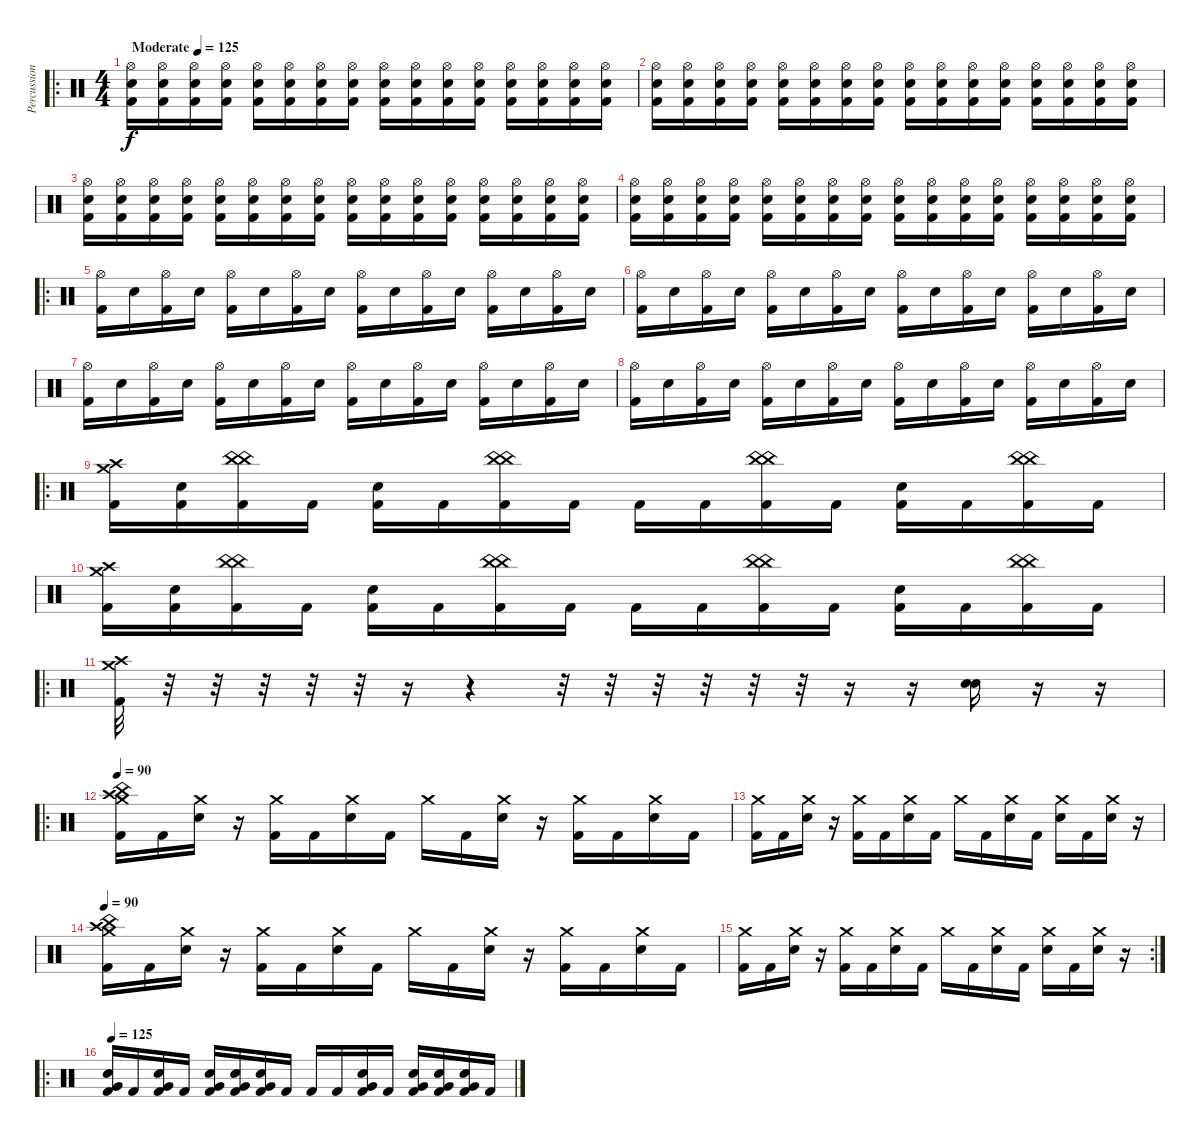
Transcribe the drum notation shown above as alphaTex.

\track ("Percussion" "Percussion") {instrument percussion}
\staff {score}
\articulation defaults
\ro
\ts (4 4)
\tempo (125 "Moderate")
\clef neutral
\ks c
("Hi-Hat (open)" "Snare (hit) 2" "Kick (hit) 2").16{dy f} ("Hi-Hat (open)" "Snare (hit) 2" "Kick (hit) 2").16 ("Hi-Hat (open)" "Snare (hit) 2" "Kick (hit) 2").16 ("Hi-Hat (open)" "Snare (hit) 2" "Kick (hit) 2").16 ("Hi-Hat (open)" "Snare (hit) 2" "Kick (hit) 2").16 ("Hi-Hat (open)" "Snare (hit) 2" "Kick (hit) 2").16 ("Hi-Hat (open)" "Snare (hit) 2" "Kick (hit) 2").16 ("Hi-Hat (open)" "Snare (hit) 2" "Kick (hit) 2").16 ("Hi-Hat (open)" "Snare (hit) 2" "Kick (hit) 2").16 ("Hi-Hat (open)" "Snare (hit) 2" "Kick (hit) 2").16 ("Hi-Hat (open)" "Snare (hit) 2" "Kick (hit) 2").16 ("Hi-Hat (open)" "Snare (hit) 2" "Kick (hit) 2").16 ("Hi-Hat (open)" "Snare (hit) 2" "Kick (hit) 2").16 ("Hi-Hat (open)" "Snare (hit) 2" "Kick (hit) 2").16 ("Hi-Hat (open)" "Snare (hit) 2" "Kick (hit) 2").16 ("Hi-Hat (open)" "Snare (hit) 2" "Kick (hit) 2").16 |
("Hi-Hat (open)" "Snare (hit) 2" "Kick (hit) 2").16 ("Hi-Hat (open)" "Snare (hit) 2" "Kick (hit) 2").16 ("Hi-Hat (open)" "Snare (hit) 2" "Kick (hit) 2").16 ("Hi-Hat (open)" "Snare (hit) 2" "Kick (hit) 2").16 ("Hi-Hat (open)" "Snare (hit) 2" "Kick (hit) 2").16 ("Hi-Hat (open)" "Snare (hit) 2" "Kick (hit) 2").16 ("Hi-Hat (open)" "Snare (hit) 2" "Kick (hit) 2").16 ("Hi-Hat (open)" "Snare (hit) 2" "Kick (hit) 2").16 ("Hi-Hat (open)" "Snare (hit) 2" "Kick (hit) 2").16 ("Hi-Hat (open)" "Snare (hit) 2" "Kick (hit) 2").16 ("Hi-Hat (open)" "Snare (hit) 2" "Kick (hit) 2").16 ("Hi-Hat (open)" "Snare (hit) 2" "Kick (hit) 2").16 ("Hi-Hat (open)" "Snare (hit) 2" "Kick (hit) 2").16 ("Hi-Hat (open)" "Snare (hit) 2" "Kick (hit) 2").16 ("Hi-Hat (open)" "Snare (hit) 2" "Kick (hit) 2").16 ("Hi-Hat (open)" "Snare (hit) 2" "Kick (hit) 2").16 |
("Hi-Hat (open)" "Snare (hit) 2" "Kick (hit) 2").16 ("Hi-Hat (open)" "Snare (hit) 2" "Kick (hit) 2").16 ("Hi-Hat (open)" "Snare (hit) 2" "Kick (hit) 2").16 ("Hi-Hat (open)" "Snare (hit) 2" "Kick (hit) 2").16 ("Hi-Hat (open)" "Snare (hit) 2" "Kick (hit) 2").16 ("Hi-Hat (open)" "Snare (hit) 2" "Kick (hit) 2").16 ("Hi-Hat (open)" "Snare (hit) 2" "Kick (hit) 2").16 ("Hi-Hat (open)" "Snare (hit) 2" "Kick (hit) 2").16 ("Hi-Hat (open)" "Snare (hit) 2" "Kick (hit) 2").16 ("Hi-Hat (open)" "Snare (hit) 2" "Kick (hit) 2").16 ("Hi-Hat (open)" "Snare (hit) 2" "Kick (hit) 2").16 ("Hi-Hat (open)" "Snare (hit) 2" "Kick (hit) 2").16 ("Hi-Hat (open)" "Snare (hit) 2" "Kick (hit) 2").16 ("Hi-Hat (open)" "Snare (hit) 2" "Kick (hit) 2").16 ("Hi-Hat (open)" "Snare (hit) 2" "Kick (hit) 2").16 ("Hi-Hat (open)" "Snare (hit) 2" "Kick (hit) 2").16 |
("Hi-Hat (open)" "Snare (hit) 2" "Kick (hit) 2").16 ("Hi-Hat (open)" "Snare (hit) 2" "Kick (hit) 2").16 ("Hi-Hat (open)" "Snare (hit) 2" "Kick (hit) 2").16 ("Hi-Hat (open)" "Snare (hit) 2" "Kick (hit) 2").16 ("Hi-Hat (open)" "Snare (hit) 2" "Kick (hit) 2").16 ("Hi-Hat (open)" "Snare (hit) 2" "Kick (hit) 2").16 ("Hi-Hat (open)" "Snare (hit) 2" "Kick (hit) 2").16 ("Hi-Hat (open)" "Snare (hit) 2" "Kick (hit) 2").16 ("Hi-Hat (open)" "Snare (hit) 2" "Kick (hit) 2").16 ("Hi-Hat (open)" "Snare (hit) 2" "Kick (hit) 2").16 ("Hi-Hat (open)" "Snare (hit) 2" "Kick (hit) 2").16 ("Hi-Hat (open)" "Snare (hit) 2" "Kick (hit) 2").16 ("Hi-Hat (open)" "Snare (hit) 2" "Kick (hit) 2").16 ("Hi-Hat (open)" "Snare (hit) 2" "Kick (hit) 2").16 ("Hi-Hat (open)" "Snare (hit) 2" "Kick (hit) 2").16 ("Hi-Hat (open)" "Snare (hit) 2" "Kick (hit) 2").16 |
\ro
("Hi-Hat (open)" "Kick (hit) 2").16 "Snare (hit) 2".16 ("Hi-Hat (open)" "Kick (hit) 2").16 "Snare (hit) 2".16 ("Hi-Hat (open)" "Kick (hit) 2").16 "Snare (hit) 2".16 ("Hi-Hat (open)" "Kick (hit) 2").16 "Snare (hit) 2".16 ("Hi-Hat (open)" "Kick (hit) 2").16 "Snare (hit) 2".16 ("Hi-Hat (open)" "Kick (hit) 2").16 "Snare (hit) 2".16 ("Hi-Hat (open)" "Kick (hit) 2").16 "Snare (hit) 2".16 ("Hi-Hat (open)" "Kick (hit) 2").16 "Snare (hit) 2".16 |
("Hi-Hat (open)" "Kick (hit) 2").16 "Snare (hit) 2".16 ("Hi-Hat (open)" "Kick (hit) 2").16 "Snare (hit) 2".16 ("Hi-Hat (open)" "Kick (hit) 2").16 "Snare (hit) 2".16 ("Hi-Hat (open)" "Kick (hit) 2").16 "Snare (hit) 2".16 ("Hi-Hat (open)" "Kick (hit) 2").16 "Snare (hit) 2".16 ("Hi-Hat (open)" "Kick (hit) 2").16 "Snare (hit) 2".16 ("Hi-Hat (open)" "Kick (hit) 2").16 "Snare (hit) 2".16 ("Hi-Hat (open)" "Kick (hit) 2").16 "Snare (hit) 2".16 |
("Hi-Hat (open)" "Kick (hit) 2").16 "Snare (hit) 2".16 ("Hi-Hat (open)" "Kick (hit) 2").16 "Snare (hit) 2".16 ("Hi-Hat (open)" "Kick (hit) 2").16 "Snare (hit) 2".16 ("Hi-Hat (open)" "Kick (hit) 2").16 "Snare (hit) 2".16 ("Hi-Hat (open)" "Kick (hit) 2").16 "Snare (hit) 2".16 ("Hi-Hat (open)" "Kick (hit) 2").16 "Snare (hit) 2".16 ("Hi-Hat (open)" "Kick (hit) 2").16 "Snare (hit) 2".16 ("Hi-Hat (open)" "Kick (hit) 2").16 "Snare (hit) 2".16 |
("Hi-Hat (open)" "Kick (hit) 2").16 "Snare (hit) 2".16 ("Hi-Hat (open)" "Kick (hit) 2").16 "Snare (hit) 2".16 ("Hi-Hat (open)" "Kick (hit) 2").16 "Snare (hit) 2".16 ("Hi-Hat (open)" "Kick (hit) 2").16 "Snare (hit) 2".16 ("Hi-Hat (open)" "Kick (hit) 2").16 "Snare (hit) 2".16 ("Hi-Hat (open)" "Kick (hit) 2").16 "Snare (hit) 2".16 ("Hi-Hat (open)" "Kick (hit) 2").16 "Snare (hit) 2".16 ("Hi-Hat (open)" "Kick (hit) 2").16 "Snare (hit) 2".16 |
\ro
("Crash medium (hit)" "Crash high (hit)" "Kick (hit) 2").16 ("Snare (hit) 2" "Kick (hit) 2").16 ("China (hit)" "China (hit)" "Kick (hit) 2").16 "Kick (hit) 2".16 ("Snare (hit) 2" "Kick (hit) 2").16 "Kick (hit) 2".16 ("China (hit)" "China (hit)" "Kick (hit) 2").16 "Kick (hit) 2".16 "Kick (hit) 2".16 "Kick (hit) 2".16 ("China (hit)" "China (hit)" "Kick (hit) 2").16 "Kick (hit) 2".16 ("Snare (hit) 2" "Kick (hit) 2").16 "Kick (hit) 2".16 ("China (hit)" "China (hit)" "Kick (hit) 2").16 "Kick (hit) 2".16 |
("Crash medium (hit)" "Crash high (hit)" "Kick (hit) 2").16 ("Snare (hit) 2" "Kick (hit) 2").16 ("China (hit)" "China (hit)" "Kick (hit) 2").16 "Kick (hit) 2".16 ("Snare (hit) 2" "Kick (hit) 2").16 "Kick (hit) 2".16 ("China (hit)" "China (hit)" "Kick (hit) 2").16 "Kick (hit) 2".16 "Kick (hit) 2".16 "Kick (hit) 2".16 ("China (hit)" "China (hit)" "Kick (hit) 2").16 "Kick (hit) 2".16 ("Snare (hit) 2" "Kick (hit) 2").16 "Kick (hit) 2".16 ("China (hit)" "China (hit)" "Kick (hit) 2").16 "Kick (hit) 2".16 |
\ro
("Crash high (hit)" "Crash medium (hit)" "Kick (hit) 2").32 r.32 r.32 r.32 r.32 r.32 r.16 r.4 r.32 r.32 r.32 r.32 r.32 r.32 r.16 r.16 ("Snare (hit) 2" "Snare (hit) 2").16 r.16 r.16 |
\ro
\tempo 90
("China (hit)" "Crash high (hit)" "Crash medium (hit)" "Kick (hit) 2").16 "Kick (hit) 2".16 ("Crash medium (hit)" "Snare (hit) 2").16 r.16 ("Crash medium (hit)" "Kick (hit) 2").16 "Kick (hit) 2".16 ("Crash medium (hit)" "Snare (hit) 2").16 "Kick (hit) 2".16 "Crash medium (hit)".16 "Kick (hit) 2".16 ("Crash medium (hit)" "Snare (hit) 2").16 r.16 ("Crash medium (hit)" "Kick (hit) 2").16 "Kick (hit) 2".16 ("Crash medium (hit)" "Snare (hit) 2").16 "Kick (hit) 2".16 |
("Crash medium (hit)" "Kick (hit) 2").16 "Kick (hit) 2".16 ("Crash medium (hit)" "Snare (hit) 2").16 r.16 ("Crash medium (hit)" "Kick (hit) 2").16 "Kick (hit) 2".16 ("Crash medium (hit)" "Snare (hit) 2").16 "Kick (hit) 2".16 "Crash medium (hit)".16 "Kick (hit) 2".16 ("Crash medium (hit)" "Snare (hit) 2").16 "Kick (hit) 2".16 ("Crash medium (hit)" "Snare (hit) 2").16 "Kick (hit) 2".16 ("Crash medium (hit)" "Snare (hit) 2").16 r.16 |
\tempo 90
("China (hit)" "Crash high (hit)" "Crash medium (hit)" "Kick (hit) 2").16 "Kick (hit) 2".16 ("Crash medium (hit)" "Snare (hit) 2").16 r.16 ("Crash medium (hit)" "Kick (hit) 2").16 "Kick (hit) 2".16 ("Crash medium (hit)" "Snare (hit) 2").16 "Kick (hit) 2".16 "Crash medium (hit)".16 "Kick (hit) 2".16 ("Crash medium (hit)" "Snare (hit) 2").16 r.16 ("Crash medium (hit)" "Kick (hit) 2").16 "Kick (hit) 2".16 ("Crash medium (hit)" "Snare (hit) 2").16 "Kick (hit) 2".16 |
\rc 2
("Crash medium (hit)" "Kick (hit) 2").16 "Kick (hit) 2".16 ("Crash medium (hit)" "Snare (hit) 2").16 r.16 ("Crash medium (hit)" "Kick (hit) 2").16 "Kick (hit) 2".16 ("Crash medium (hit)" "Snare (hit) 2").16 "Kick (hit) 2".16 "Crash medium (hit)".16 "Kick (hit) 2".16 ("Crash medium (hit)" "Snare (hit) 2").16 "Kick (hit) 2".16 ("Crash medium (hit)" "Snare (hit) 2").16 "Kick (hit) 2".16 ("Crash medium (hit)" "Snare (hit) 2").16 r.16 |
\ro
\tempo 125
("Very Low Tom (hit)" "Snare (hit) 2" "Kick (hit) 2").16 "Kick (hit) 2".16 ("Very Low Tom (hit)" "Snare (hit) 2" "Kick (hit) 2").16 "Kick (hit) 2".16 ("Very Low Tom (hit)" "Snare (hit) 2" "Kick (hit) 2").16 ("Very Low Tom (hit)" "Snare (hit) 2" "Kick (hit) 2").16 ("Very Low Tom (hit)" "Snare (hit) 2" "Kick (hit) 2").16 "Kick (hit) 2".16 "Kick (hit) 2".16 "Kick (hit) 2".16 ("Very Low Tom (hit)" "Snare (hit) 2" "Kick (hit) 2").16 "Kick (hit) 2".16 ("Very Low Tom (hit)" "Snare (hit) 2" "Kick (hit) 2").16 ("Very Low Tom (hit)" "Snare (hit) 2" "Kick (hit) 2").16 ("Very Low Tom (hit)" "Snare (hit) 2" "Kick (hit) 2").16 "Kick (hit) 2".16
